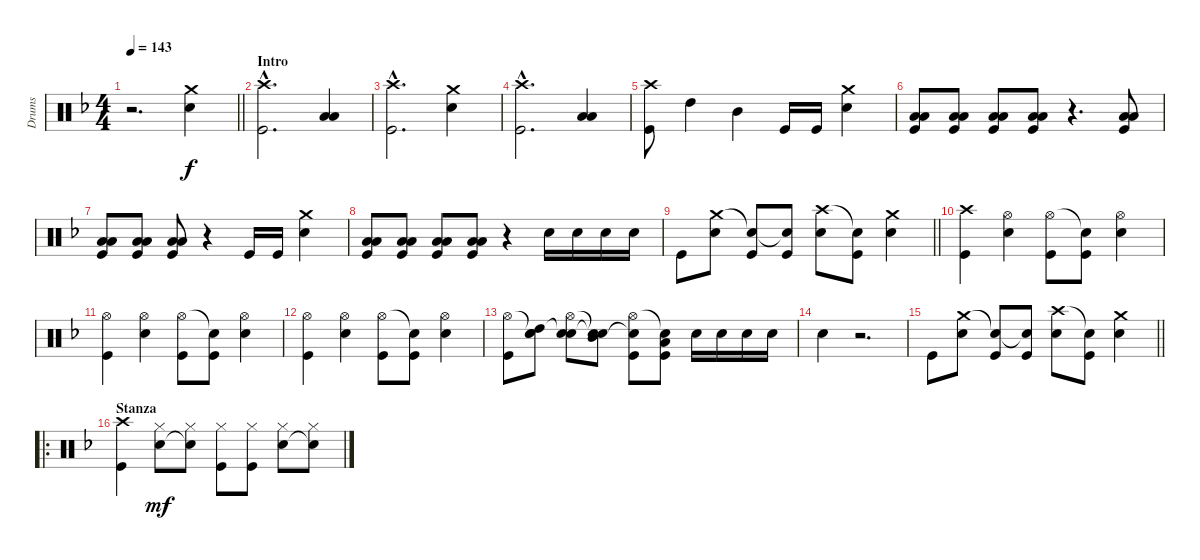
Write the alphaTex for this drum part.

\track ("Drums" "Drums") {instrument percussion}
\staff {score}
\articulation defaults
\ts (4 4)
\tempo 143
\clef neutral
\barLineRight lightlight
\ks f
r.2{d dy f} ("Crash medium (hit)" "Electric Snare (hit)").4 |
\section ("" "Intro")
("Crash high (hit)"{hac} "Kick (hit)"{hac}).2{d} ("Low Floor Tom (hit)" "Low Tom (hit)").4 |
("Crash high (hit)"{hac} "Kick (hit)"{hac}).2{d} ("Crash medium (hit)" "Electric Snare (hit)").4 |
("Crash high (hit)"{hac} "Kick (hit)"{hac}).2{d} ("Low Floor Tom (hit)" "Low Tom (hit)").4 |
("Crash high (hit)" "Kick (hit)").8 "High Tom (hit)".4 "Mid Tom (hit)".4 "Kick (hit)".16 "Kick (hit)".16 ("Crash medium (hit)" "Electric Snare (hit)").4 |
("Low Floor Tom (hit)" "Low Tom (hit)" "Kick (hit)").8 ("Low Floor Tom (hit)" "Low Tom (hit)" "Kick (hit)").8 ("Low Floor Tom (hit)" "Low Tom (hit)" "Kick (hit)").8 ("Low Floor Tom (hit)" "Low Tom (hit)" "Kick (hit)").8 r.4{d} ("Low Floor Tom (hit)" "Low Tom (hit)" "Kick (hit)").8 |
("Low Floor Tom (hit)" "Low Tom (hit)" "Kick (hit)").8 ("Low Floor Tom (hit)" "Low Tom (hit)" "Kick (hit)").8 ("Low Floor Tom (hit)" "Low Tom (hit)" "Kick (hit)").8 r.4 "Kick (hit)".16 "Kick (hit)".16 ("Crash medium (hit)" "Electric Snare (hit)").4 |
("Low Floor Tom (hit)" "Low Tom (hit)" "Kick (hit)").8 ("Low Floor Tom (hit)" "Low Tom (hit)" "Kick (hit)").8 ("Low Floor Tom (hit)" "Low Tom (hit)" "Kick (hit)").8 ("Low Floor Tom (hit)" "Low Tom (hit)" "Kick (hit)").8 r.4 "Electric Snare (hit)".16 "Electric Snare (hit)".16 "Electric Snare (hit)".16 "Electric Snare (hit)".16 |
\barLineRight lightlight "Kick (hit)".8
("Crash medium (hit)" "Electric Snare (hit)").8 ("Snare (hit)"{t} "Kick (hit)").8 ("Snare (hit)"{t} "Kick (hit)").8 ("Crash high (hit)" "Electric Snare (hit)").8 ("Snare (hit)"{t} "Kick (hit)").8 ("Crash medium (hit)" "Electric Snare (hit)").4 |
("Crash high (hit)" "Kick (hit)").4 ("Hi-Hat (open)" "Electric Snare (hit)").4 ("Hi-Hat (open)" "Kick (hit)").8 ("Snare (hit)"{t} "Kick (hit)").8 ("Hi-Hat (open)" "Electric Snare (hit)").4 |
("Hi-Hat (open)" "Kick (hit)").4 ("Hi-Hat (open)" "Electric Snare (hit)").4 ("Hi-Hat (open)" "Kick (hit)").8 ("Snare (hit)"{t} "Kick (hit)").8 ("Hi-Hat (open)" "Electric Snare (hit)").4 |
("Hi-Hat (open)" "Kick (hit)").4 ("Hi-Hat (open)" "Electric Snare (hit)").4 ("Hi-Hat (open)" "Kick (hit)").8 ("Snare (hit)"{t} "Kick (hit)").8 ("Hi-Hat (open)" "Electric Snare (hit)").4 |
("Hi-Hat (open)" "Kick (hit)").8 ("Snare (hit)"{t} "High Tom (hit)" "Snare (hit)").8 ("Hi-Hat (open)" "Snare (hit)"{t} "Electric Snare (hit)").8 ("Snare (hit)"{t} "Mid Tom (hit)" "Snare (hit)"{t}).8 ("Hi-Hat (open)" "Snare (hit)"{t} "Kick (hit)").8 ("Snare (hit)"{t} "Low Tom (hit)" "Kick (hit)").8 "Electric Snare (hit)".16 "Electric Snare (hit)".16 "Electric Snare (hit)".16 "Electric Snare (hit)".16 |
"Electric Snare (hit)".4 r.2{d} |
\barLineRight lightlight "Kick (hit)".8
("Crash medium (hit)" "Electric Snare (hit)").8 ("Snare (hit)"{t} "Kick (hit)").8 ("Snare (hit)"{t} "Kick (hit)").8 ("Crash high (hit)" "Electric Snare (hit)").8 ("Snare (hit)"{t} "Kick (hit)").8 ("Crash medium (hit)" "Electric Snare (hit)").4 |
\ro
\section ("" "Stanza")
("Crash high (hit)" "Kick (hit)").4 ("Hi-Hat (closed)" "Electric Snare (hit)").8{dy mf} ("Hi-Hat (closed)" "Snare (hit)"{t}).8 ("Hi-Hat (closed)" "Kick (hit)").8 ("Hi-Hat (closed)" "Kick (hit)").8 ("Hi-Hat (closed)" "Electric Snare (hit)").8 ("Hi-Hat (closed)" "Snare (hit)"{t}).8
